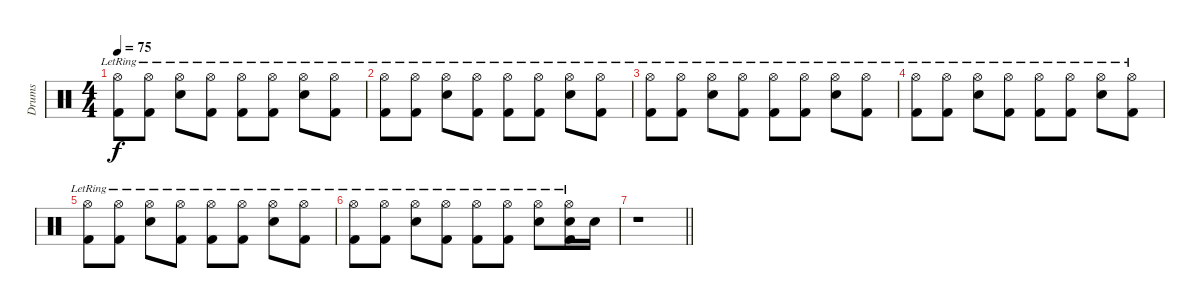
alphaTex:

\track ("Drums" "Drums") {instrument percussion}
\staff {score}
\articulation defaults
\ts (4 4)
\tempo 75
\clef neutral
\ks c
("Hi-Hat (open)"{lr} "Kick (hit) 2"{lr}).8{dy f} ("Hi-Hat (open)"{lr} "Kick (hit) 2"{lr}).8 ("Hi-Hat (open)"{lr} "Electric Snare (hit)"{lr}).8 ("Hi-Hat (open)"{lr} "Kick (hit) 2"{lr}).8 ("Hi-Hat (open)"{lr} "Kick (hit) 2"{lr}).8 ("Hi-Hat (open)"{lr} "Kick (hit) 2"{lr}).8 ("Hi-Hat (open)"{lr} "Electric Snare (hit)"{lr}).8 ("Hi-Hat (open)"{lr} "Kick (hit) 2"{lr}).8 |
("Hi-Hat (open)"{lr} "Kick (hit) 2"{lr}).8 ("Hi-Hat (open)"{lr} "Kick (hit) 2"{lr}).8 ("Hi-Hat (open)"{lr} "Electric Snare (hit)"{lr}).8 ("Hi-Hat (open)"{lr} "Kick (hit) 2"{lr}).8 ("Hi-Hat (open)"{lr} "Kick (hit) 2"{lr}).8 ("Hi-Hat (open)"{lr} "Kick (hit) 2"{lr}).8 ("Hi-Hat (open)"{lr} "Electric Snare (hit)"{lr}).8 ("Hi-Hat (open)"{lr} "Kick (hit) 2"{lr}).8 |
("Hi-Hat (open)"{lr} "Kick (hit) 2"{lr}).8 ("Hi-Hat (open)"{lr} "Kick (hit) 2"{lr}).8 ("Hi-Hat (open)"{lr} "Electric Snare (hit)"{lr}).8 ("Hi-Hat (open)"{lr} "Kick (hit) 2"{lr}).8 ("Hi-Hat (open)"{lr} "Kick (hit) 2"{lr}).8 ("Hi-Hat (open)"{lr} "Kick (hit) 2"{lr}).8 ("Hi-Hat (open)"{lr} "Electric Snare (hit)"{lr}).8 ("Hi-Hat (open)"{lr} "Kick (hit) 2"{lr}).8 |
("Hi-Hat (open)"{lr} "Kick (hit) 2"{lr}).8 ("Hi-Hat (open)"{lr} "Kick (hit) 2"{lr}).8 ("Hi-Hat (open)"{lr} "Electric Snare (hit)"{lr}).8 ("Hi-Hat (open)"{lr} "Kick (hit) 2"{lr}).8 ("Hi-Hat (open)"{lr} "Kick (hit) 2"{lr}).8 ("Hi-Hat (open)"{lr} "Kick (hit) 2"{lr}).8 ("Hi-Hat (open)"{lr} "Electric Snare (hit)"{lr}).8 ("Hi-Hat (open)"{lr} "Kick (hit) 2"{lr}).8 |
("Hi-Hat (open)"{lr} "Kick (hit) 2"{lr}).8 ("Hi-Hat (open)"{lr} "Kick (hit) 2"{lr}).8 ("Hi-Hat (open)"{lr} "Electric Snare (hit)"{lr}).8 ("Hi-Hat (open)"{lr} "Kick (hit) 2"{lr}).8 ("Hi-Hat (open)"{lr} "Kick (hit) 2"{lr}).8 ("Hi-Hat (open)"{lr} "Kick (hit) 2"{lr}).8 ("Hi-Hat (open)"{lr} "Electric Snare (hit)"{lr}).8 ("Hi-Hat (open)"{lr} "Kick (hit) 2"{lr}).8 |
("Hi-Hat (open)"{lr} "Kick (hit) 2"{lr}).8 ("Hi-Hat (open)"{lr} "Kick (hit) 2"{lr}).8 ("Hi-Hat (open)"{lr} "Electric Snare (hit)"{lr}).8 ("Hi-Hat (open)"{lr} "Kick (hit) 2"{lr}).8 ("Hi-Hat (open)"{lr} "Kick (hit) 2"{lr}).8 ("Hi-Hat (open)" "Kick (hit) 2"{lr}).8 ("Hi-Hat (open)"{lr} "Electric Snare (hit)"{lr}).8 ("Hi-Hat (open)"{lr} "Electric Snare (hit)" "Kick (hit) 2"{lr}).16 "Electric Snare (hit)".16 |
\barLineRight lightlight
r.1
